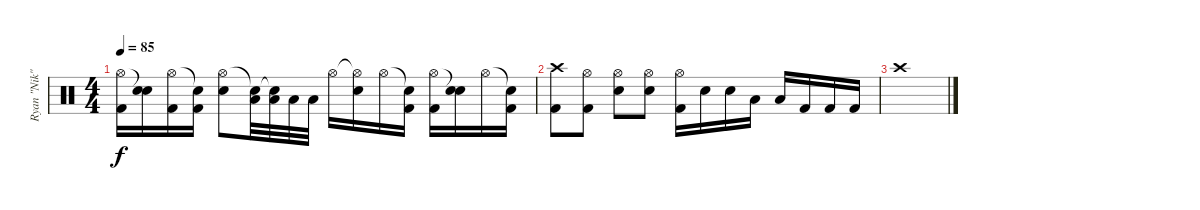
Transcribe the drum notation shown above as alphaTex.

\track ("Ryan \"Nik\" Vikedal (Drums)" "Ryan \"Nik\"") {instrument percussion}
\staff {score}
\articulation defaults
\ts (4 4)
\tempo 85
\clef neutral
\ks c
("Hi-Hat (open)" "Kick (hit) 2").16{dy f} ("Snare (hit)"{t} "Electric Snare (hit)").16 ("Hi-Hat (open)" "Kick (hit) 2").16 ("Snare (hit)"{t} "Kick (hit) 2").16 ("Hi-Hat (open)" "Electric Snare (hit)").8 ("Snare (hit)"{t} "Low Tom (hit)").32 ("Snare (hit)"{t} "Low Tom (hit)").32 "Low Tom (hit)".32 "Low Tom (hit)".32 "Hi-Hat (open)".16 ("Hi-Hat (open)"{t} "Electric Snare (hit)").16 "Hi-Hat (open)".16 ("Snare (hit)"{t} "Kick (hit) 2").16 ("Hi-Hat (open)" "Kick (hit) 2").16 ("Snare (hit)"{t} "Electric Snare (hit)").16 "Hi-Hat (open)".16 ("Snare (hit)"{t} "Kick (hit) 2").16 |
("Crash high (hit)" "Kick (hit) 2").8 ("Hi-Hat (open)" "Kick (hit) 2").8 ("Hi-Hat (open)" "Electric Snare (hit)").8 ("Hi-Hat (open)" "Electric Snare (hit)").8 ("Hi-Hat (open)" "Kick (hit) 2").16 "Electric Snare (hit)".16 "Electric Snare (hit)".16 "Low Tom (hit)".16 "Low Tom (hit)".16 "Kick (hit) 2".16 "Kick (hit) 2".16 "Kick (hit) 2".16 |
"Crash high (hit)".1
